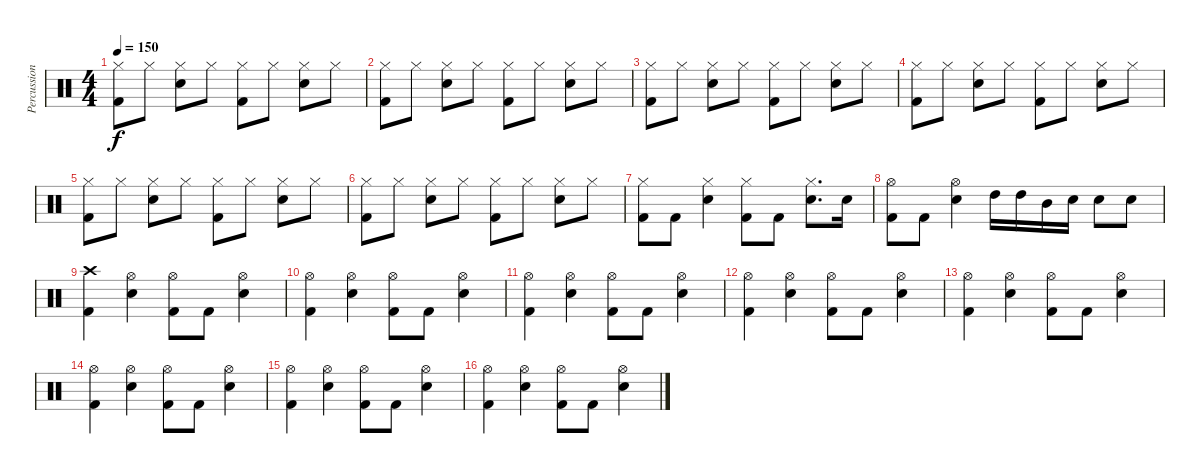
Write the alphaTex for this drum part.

\track ("Percussion" "Percussion") {instrument percussion}
\staff {score}
\articulation defaults
\ts (4 4)
\tempo 150
\clef neutral
\ks c
("Hi-Hat (closed)" "Kick (hit) 2").8{dy f} "Hi-Hat (closed)".8 ("Hi-Hat (closed)" "Snare (hit) 2").8 "Hi-Hat (closed)".8 ("Hi-Hat (closed)" "Kick (hit) 2").8 "Hi-Hat (closed)".8 ("Hi-Hat (closed)" "Snare (hit) 2").8 "Hi-Hat (closed)".8 |
("Hi-Hat (closed)" "Kick (hit) 2").8 "Hi-Hat (closed)".8 ("Hi-Hat (closed)" "Snare (hit) 2").8 "Hi-Hat (closed)".8 ("Hi-Hat (closed)" "Kick (hit) 2").8 "Hi-Hat (closed)".8 ("Hi-Hat (closed)" "Snare (hit) 2").8 "Hi-Hat (closed)".8 |
("Hi-Hat (closed)" "Kick (hit) 2").8 "Hi-Hat (closed)".8 ("Hi-Hat (closed)" "Snare (hit) 2").8 "Hi-Hat (closed)".8 ("Hi-Hat (closed)" "Kick (hit) 2").8 "Hi-Hat (closed)".8 ("Hi-Hat (closed)" "Snare (hit) 2").8 "Hi-Hat (closed)".8 |
("Hi-Hat (closed)" "Kick (hit) 2").8 "Hi-Hat (closed)".8 ("Hi-Hat (closed)" "Snare (hit) 2").8 "Hi-Hat (closed)".8 ("Hi-Hat (closed)" "Kick (hit) 2").8 "Hi-Hat (closed)".8 ("Hi-Hat (closed)" "Snare (hit) 2").8 "Hi-Hat (closed)".8 |
("Hi-Hat (closed)" "Kick (hit) 2").8 "Hi-Hat (closed)".8 ("Hi-Hat (closed)" "Snare (hit) 2").8 "Hi-Hat (closed)".8 ("Hi-Hat (closed)" "Kick (hit) 2").8 "Hi-Hat (closed)".8 ("Hi-Hat (closed)" "Snare (hit) 2").8 "Hi-Hat (closed)".8 |
("Hi-Hat (closed)" "Kick (hit) 2").8 "Hi-Hat (closed)".8 ("Hi-Hat (closed)" "Snare (hit) 2").8 "Hi-Hat (closed)".8 ("Hi-Hat (closed)" "Kick (hit) 2").8 "Hi-Hat (closed)".8 ("Hi-Hat (closed)" "Snare (hit) 2").8 "Hi-Hat (closed)".8 |
("Hi-Hat (closed)" "Kick (hit) 2").8 "Kick (hit) 2".8 ("Hi-Hat (closed)" "Snare (hit) 2").4 ("Hi-Hat (closed)" "Kick (hit) 2").8 "Kick (hit) 2".8 ("Hi-Hat (closed)" "Snare (hit) 2").8{d} "Snare (hit) 2".16 |
("Hi-Hat (open)" "Kick (hit) 2").8 "Kick (hit) 2".8 ("Hi-Hat (open)" "Snare (hit) 2").4 "High Tom (hit)".16 "High Tom (hit)".16 "Mid Tom (hit)".16 "Snare (hit) 2".16 "Snare (hit) 2".8 "Snare (hit) 2".8 |
("Crash high (hit)" "Kick (hit) 2").4 ("Hi-Hat (open)" "Snare (hit) 2").4 ("Hi-Hat (open)" "Kick (hit) 2").8 "Kick (hit) 2".8 ("Hi-Hat (open)" "Snare (hit) 2").4 |
("Hi-Hat (open)" "Kick (hit) 2").4 ("Hi-Hat (open)" "Snare (hit) 2").4 ("Hi-Hat (open)" "Kick (hit) 2").8 "Kick (hit) 2".8 ("Hi-Hat (open)" "Snare (hit) 2").4 |
("Hi-Hat (open)" "Kick (hit) 2").4 ("Hi-Hat (open)" "Snare (hit) 2").4 ("Hi-Hat (open)" "Kick (hit) 2").8 "Kick (hit) 2".8 ("Hi-Hat (open)" "Snare (hit) 2").4 |
("Hi-Hat (open)" "Kick (hit) 2").4 ("Hi-Hat (open)" "Snare (hit) 2").4 ("Hi-Hat (open)" "Kick (hit) 2").8 "Kick (hit) 2".8 ("Hi-Hat (open)" "Snare (hit) 2").4 |
("Hi-Hat (open)" "Kick (hit) 2").4 ("Hi-Hat (open)" "Snare (hit) 2").4 ("Hi-Hat (open)" "Kick (hit) 2").8 "Kick (hit) 2".8 ("Hi-Hat (open)" "Snare (hit) 2").4 |
("Hi-Hat (open)" "Kick (hit) 2").4 ("Hi-Hat (open)" "Snare (hit) 2").4 ("Hi-Hat (open)" "Kick (hit) 2").8 "Kick (hit) 2".8 ("Hi-Hat (open)" "Snare (hit) 2").4 |
("Hi-Hat (open)" "Kick (hit) 2").4 ("Hi-Hat (open)" "Snare (hit) 2").4 ("Hi-Hat (open)" "Kick (hit) 2").8 "Kick (hit) 2".8 ("Hi-Hat (open)" "Snare (hit) 2").4 |
("Hi-Hat (open)" "Kick (hit) 2").4 ("Hi-Hat (open)" "Snare (hit) 2").4 ("Hi-Hat (open)" "Kick (hit) 2").8 "Kick (hit) 2".8 ("Hi-Hat (open)" "Snare (hit) 2").4
